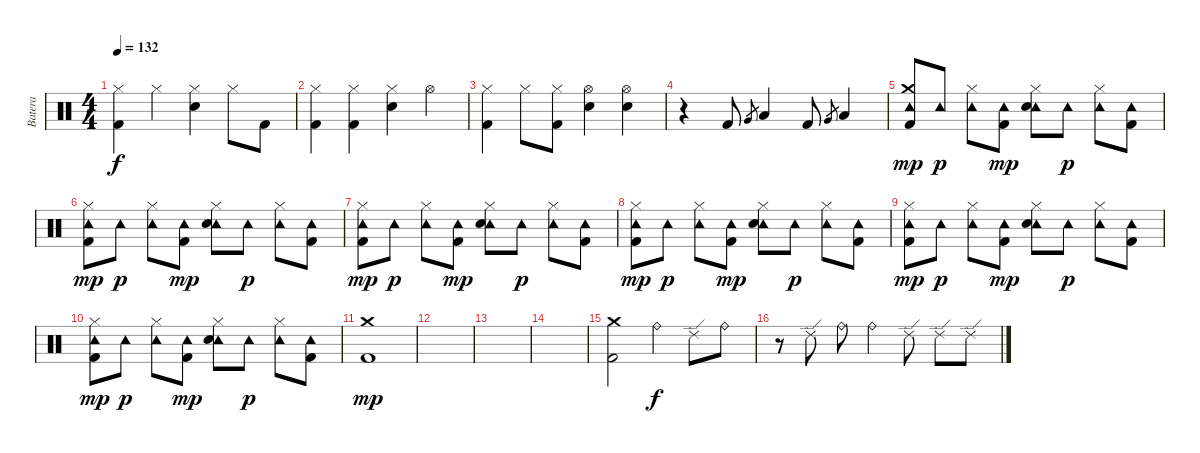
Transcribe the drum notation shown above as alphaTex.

\track ("Batera" "Batera") {instrument percussion}
\staff {score}
\articulation defaults
\ts (4 4)
\tempo 132
\clef neutral
\ks c
("Hi-Hat (closed)" "Kick (hit) 2").4{dy f} "Hi-Hat (closed)".4 ("Hi-Hat (closed)" "Electric Snare (hit)").4 "Hi-Hat (closed)".8 "Kick (hit) 2".8 |
("Hi-Hat (closed)" "Kick (hit) 2").4 ("Hi-Hat (closed)" "Kick (hit) 2").4 ("Hi-Hat (closed)" "Electric Snare (hit)").4 "Hi-Hat (open)".4 |
("Hi-Hat (closed)" "Kick (hit) 2").4 "Hi-Hat (closed)".8 ("Hi-Hat (closed)" "Kick (hit) 2").8 ("Hi-Hat (open)" "Electric Snare (hit)").4 ("Hi-Hat (open)" "Electric Snare (hit)").4 |
r.4 "Kick (hit) 2".8 "Very Low Tom (hit)".8{gr} "Low Tom (hit)".4 "Kick (hit) 2".8 "Very Low Tom (hit)".8{gr} "Low Tom (hit)".4 |
("Crash medium (hit)" "Tambourine (hit)" "Kick (hit) 2").8{dy mp} "Tambourine (hit)".8{dy p} ("Hi-Hat (closed)" "Tambourine (hit)").8 ("Tambourine (hit)" "Kick (hit) 2").8{dy mp} ("Hi-Hat (closed)" "Tambourine (hit)" "Electric Snare (hit)").8 "Tambourine (hit)".8{dy p} ("Hi-Hat (closed)" "Tambourine (hit)").8 ("Tambourine (hit)" "Kick (hit) 2").8 |
("Hi-Hat (closed)" "Tambourine (hit)" "Kick (hit) 2").8{dy mp} "Tambourine (hit)".8{dy p} ("Hi-Hat (closed)" "Tambourine (hit)").8 ("Tambourine (hit)" "Kick (hit) 2").8{dy mp} ("Hi-Hat (closed)" "Tambourine (hit)" "Electric Snare (hit)").8 "Tambourine (hit)".8{dy p} ("Hi-Hat (closed)" "Tambourine (hit)").8 ("Tambourine (hit)" "Kick (hit) 2").8 |
("Hi-Hat (closed)" "Tambourine (hit)" "Kick (hit) 2").8{dy mp} "Tambourine (hit)".8{dy p} ("Hi-Hat (closed)" "Tambourine (hit)").8 ("Tambourine (hit)" "Kick (hit) 2").8{dy mp} ("Hi-Hat (closed)" "Tambourine (hit)" "Electric Snare (hit)").8 "Tambourine (hit)".8{dy p} ("Hi-Hat (closed)" "Tambourine (hit)").8 ("Tambourine (hit)" "Kick (hit) 2").8 |
("Hi-Hat (closed)" "Tambourine (hit)" "Kick (hit) 2").8{dy mp} "Tambourine (hit)".8{dy p} ("Hi-Hat (closed)" "Tambourine (hit)").8 ("Tambourine (hit)" "Kick (hit) 2").8{dy mp} ("Hi-Hat (closed)" "Tambourine (hit)" "Electric Snare (hit)").8 "Tambourine (hit)".8{dy p} ("Hi-Hat (closed)" "Tambourine (hit)").8 ("Tambourine (hit)" "Kick (hit) 2").8 |
("Hi-Hat (closed)" "Tambourine (hit)" "Kick (hit) 2").8{dy mp} "Tambourine (hit)".8{dy p} ("Hi-Hat (closed)" "Tambourine (hit)").8 ("Tambourine (hit)" "Kick (hit) 2").8{dy mp} ("Hi-Hat (closed)" "Tambourine (hit)" "Electric Snare (hit)").8 "Tambourine (hit)".8{dy p} ("Hi-Hat (closed)" "Tambourine (hit)").8 ("Tambourine (hit)" "Kick (hit) 2").8 |
("Hi-Hat (closed)" "Tambourine (hit)" "Kick (hit) 2").8{dy mp} "Tambourine (hit)".8{dy p} ("Hi-Hat (closed)" "Tambourine (hit)").8 ("Tambourine (hit)" "Kick (hit) 2").8{dy mp} ("Hi-Hat (closed)" "Tambourine (hit)" "Electric Snare (hit)").8 "Tambourine (hit)".8{dy p} ("Hi-Hat (closed)" "Tambourine (hit)").8 ("Tambourine (hit)" "Kick (hit) 2").8 |
("Crash medium (hit)" "Kick (hit) 2").1{dy mp} |
|
|
|
("Crash medium (hit)" "Kick (hit) 2").2 "Ride (bell)".4{dy f} "Ride (edge) 2".8 "Ride (bell)".8 |
r.8 "Ride (edge) 2".8 "Ride (bell)".8 "Ride (bell)".4 "Ride (edge) 2".8 "Ride (edge) 2".8 "Ride (edge) 2".8
